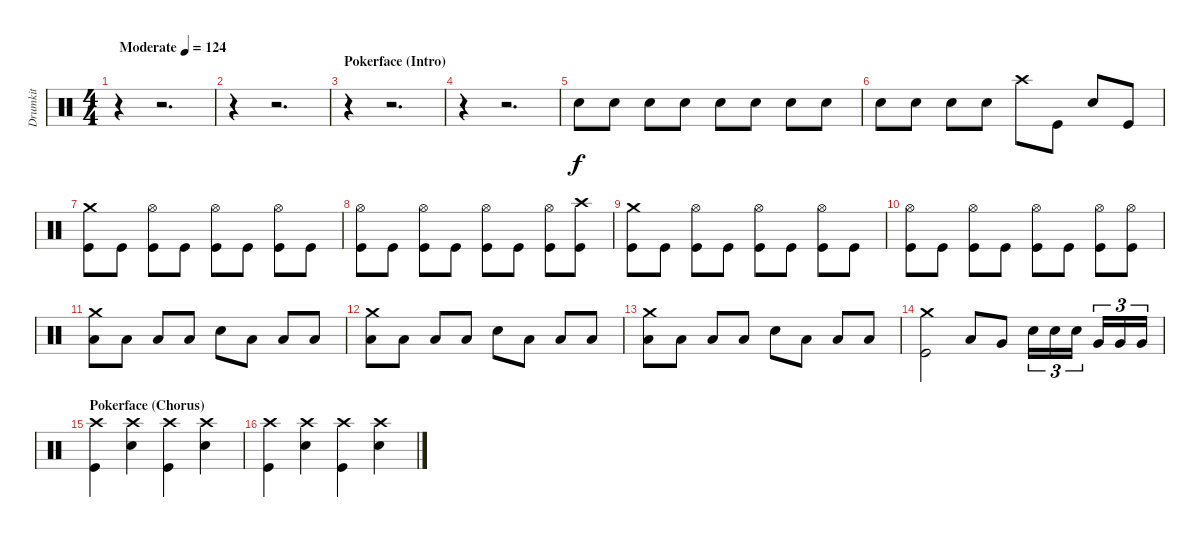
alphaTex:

\track ("Drumkit" "Drumkit") {instrument percussion}
\staff {score}
\articulation defaults
\ts (4 4)
\tempo (124 "Moderate")
\clef neutral
\ks c
r.4{dy f} r.2{d} |
r.4 r.2{d} |
\section ("" "Pokerface (Intro)")
r.4 r.2{d} |
r.4 r.2{d} |
"Snare (hit) 2".8 "Snare (hit) 2".8 "Snare (hit) 2".8 "Snare (hit) 2".8 "Snare (hit) 2".8 "Snare (hit) 2".8 "Snare (hit) 2".8 "Snare (hit) 2".8 |
"Snare (hit) 2".8 "Snare (hit) 2".8 "Snare (hit) 2".8 "Snare (hit) 2".8 "Crash high (hit)".8 "Kick (hit)".8 "Snare (hit) 2".8 "Kick (hit)".8 |
("Kick (hit)" "Crash medium (hit)").8 "Kick (hit)".8 ("Kick (hit)" "Hi-Hat (open)").8 "Kick (hit)".8 ("Kick (hit)" "Hi-Hat (open)").8 "Kick (hit)".8 ("Kick (hit)" "Hi-Hat (open)").8 "Kick (hit)".8 |
("Kick (hit)" "Hi-Hat (open)").8 "Kick (hit)".8 ("Kick (hit)" "Hi-Hat (open)").8 "Kick (hit)".8 ("Kick (hit)" "Hi-Hat (open)").8 "Kick (hit)".8 ("Kick (hit)" "Hi-Hat (open)").8 ("Kick (hit)" "Crash high (hit)").8 |
("Kick (hit)" "Crash medium (hit)").8 "Kick (hit)".8 ("Kick (hit)" "Hi-Hat (open)").8 "Kick (hit)".8 ("Kick (hit)" "Hi-Hat (open)").8 "Kick (hit)".8 ("Kick (hit)" "Hi-Hat (open)").8 "Kick (hit)".8 |
("Kick (hit)" "Hi-Hat (open)").8 "Kick (hit)".8 ("Kick (hit)" "Hi-Hat (open)").8 "Kick (hit)".8 ("Kick (hit)" "Hi-Hat (open)").8 "Kick (hit)".8 ("Kick (hit)" "Hi-Hat (open)").8 ("Kick (hit)" "Hi-Hat (open)").8 |
("Crash medium (hit)" "Low Floor Tom (hit)").8 "Low Floor Tom (hit)".8 "Low Floor Tom (hit)".8 "Low Floor Tom (hit)".8 "Snare (hit) 2".8 "Low Floor Tom (hit)".8 "Low Floor Tom (hit)".8 "Low Floor Tom (hit)".8 |
("Crash medium (hit)" "Low Floor Tom (hit)").8 "Low Floor Tom (hit)".8 "Low Floor Tom (hit)".8 "Low Floor Tom (hit)".8 "Snare (hit) 2".8 "Low Floor Tom (hit)".8 "Low Floor Tom (hit)".8 "Low Floor Tom (hit)".8 |
("Crash medium (hit)" "Low Floor Tom (hit)").8 "Low Floor Tom (hit)".8 "Low Floor Tom (hit)".8 "Low Floor Tom (hit)".8 "Snare (hit) 2".8 "Low Floor Tom (hit)".8 "Low Floor Tom (hit)".8 "Low Floor Tom (hit)".8 |
("Crash medium (hit)" "Kick (hit)").2 "Low Tom (hit)".8 "Very Low Tom (hit)".8 "Snare (hit) 2".16{tu (3 2)} "Snare (hit) 2".16{tu (3 2)} "Snare (hit) 2".16{tu (3 2)} "Very Low Tom (hit)".16{tu (3 2)} "Very Low Tom (hit)".16{tu (3 2)} "Very Low Tom (hit)".16{tu (3 2)} |
\section ("" "Pokerface (Chorus)")
("Kick (hit)" "Crash high (hit)").4 ("Snare (hit) 2" "Crash high (hit)").4 ("Kick (hit)" "Crash high (hit)").4 ("Snare (hit) 2" "Crash high (hit)").4 |
("Kick (hit)" "Crash high (hit)").4 ("Snare (hit) 2" "Crash high (hit)").4 ("Kick (hit)" "Crash high (hit)").4 ("Snare (hit) 2" "Crash high (hit)").4
